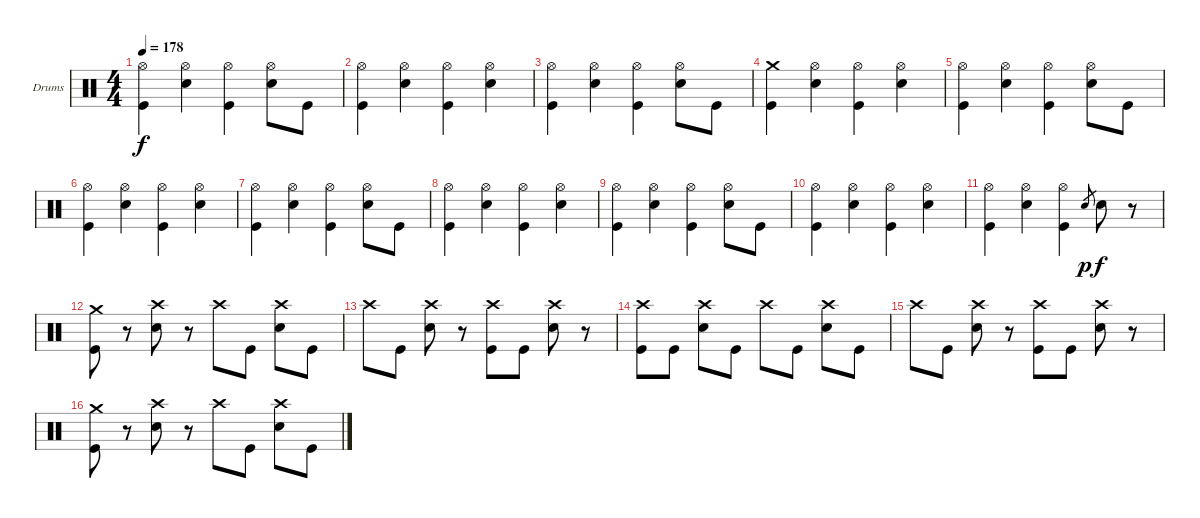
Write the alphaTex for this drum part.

\bracketExtendMode groupsimilarinstruments
\firstSystemTrackNameOrientation horizontal
\otherSystemsTrackNameOrientation horizontal
\track ("Drumkit" "Drums") {instrument percussion}
\staff {score}
\articulation defaults
\ts (4 4)
\tempo 178
\clef neutral
\ks c
("Hi-Hat (open)" "Kick (hit)").4{dy f} ("Hi-Hat (open)" "Snare (hit) 2").4 ("Hi-Hat (open)" "Kick (hit)").4 ("Hi-Hat (open)" "Snare (hit) 2").8 "Kick (hit)".8 |
("Hi-Hat (open)" "Kick (hit)").4 ("Hi-Hat (open)" "Snare (hit) 2").4 ("Hi-Hat (open)" "Kick (hit)").4 ("Hi-Hat (open)" "Snare (hit) 2").4 |
("Hi-Hat (open)" "Kick (hit)").4 ("Hi-Hat (open)" "Snare (hit) 2").4 ("Hi-Hat (open)" "Kick (hit)").4 ("Hi-Hat (open)" "Snare (hit) 2").8 "Kick (hit)".8 |
("Crash medium (hit)" "Kick (hit)").4 ("Hi-Hat (open)" "Snare (hit) 2").4 ("Hi-Hat (open)" "Kick (hit)").4 ("Hi-Hat (open)" "Snare (hit) 2").4 |
("Hi-Hat (open)" "Kick (hit)").4 ("Hi-Hat (open)" "Snare (hit) 2").4 ("Hi-Hat (open)" "Kick (hit)").4 ("Hi-Hat (open)" "Snare (hit) 2").8 "Kick (hit)".8 |
("Hi-Hat (open)" "Kick (hit)").4 ("Hi-Hat (open)" "Snare (hit) 2").4 ("Hi-Hat (open)" "Kick (hit)").4 ("Hi-Hat (open)" "Snare (hit) 2").4 |
("Hi-Hat (open)" "Kick (hit)").4 ("Hi-Hat (open)" "Snare (hit) 2").4 ("Hi-Hat (open)" "Kick (hit)").4 ("Hi-Hat (open)" "Snare (hit) 2").8 "Kick (hit)".8 |
("Hi-Hat (open)" "Kick (hit)").4 ("Hi-Hat (open)" "Snare (hit) 2").4 ("Hi-Hat (open)" "Kick (hit)").4 ("Hi-Hat (open)" "Snare (hit) 2").4 |
("Hi-Hat (open)" "Kick (hit)").4 ("Hi-Hat (open)" "Snare (hit) 2").4 ("Hi-Hat (open)" "Kick (hit)").4 ("Hi-Hat (open)" "Snare (hit) 2").8 "Kick (hit)".8 |
("Hi-Hat (open)" "Kick (hit)").4 ("Hi-Hat (open)" "Snare (hit) 2").4 ("Hi-Hat (open)" "Kick (hit)").4 ("Hi-Hat (open)" "Snare (hit) 2").4 |
("Hi-Hat (open)" "Kick (hit)").4 ("Hi-Hat (open)" "Snare (hit) 2").4 ("Hi-Hat (open)" "Kick (hit)").4 "Snare (hit) 2".8{gr dy p} "Snare (hit) 2".8{dy f} r.8 |
("Crash medium (hit)" "Kick (hit)").8 r.8 ("Crash high (hit)" "Snare (hit) 2").8 r.8 "Crash high (hit)".8 "Kick (hit)".8 ("Crash high (hit)" "Snare (hit) 2").8 "Kick (hit)".8 |
"Crash high (hit)".8 "Kick (hit)".8 ("Crash high (hit)" "Snare (hit) 2").8 r.8 ("Crash high (hit)" "Kick (hit)").8 "Kick (hit)".8 ("Crash high (hit)" "Snare (hit) 2").8 r.8 |
("Crash high (hit)" "Kick (hit)").8 "Kick (hit)".8 ("Crash high (hit)" "Snare (hit) 2").8 "Kick (hit)".8 "Crash high (hit)".8 "Kick (hit)".8 ("Crash high (hit)" "Snare (hit) 2").8 "Kick (hit)".8 |
"Crash high (hit)".8 "Kick (hit)".8 ("Crash high (hit)" "Snare (hit) 2").8 r.8 ("Crash high (hit)" "Kick (hit)").8 "Kick (hit)".8 ("Crash high (hit)" "Snare (hit) 2").8 r.8 |
("Crash medium (hit)" "Kick (hit)").8 r.8 ("Crash high (hit)" "Snare (hit) 2").8 r.8 "Crash high (hit)".8 "Kick (hit)".8 ("Crash high (hit)" "Snare (hit) 2").8 "Kick (hit)".8
